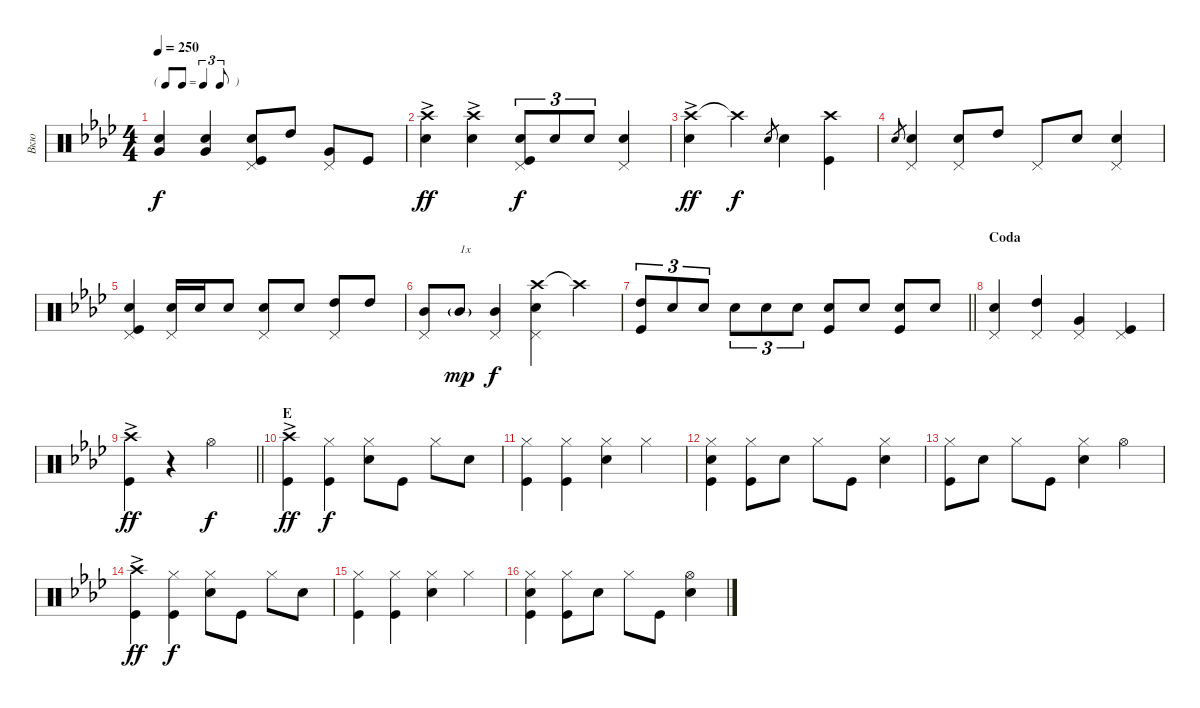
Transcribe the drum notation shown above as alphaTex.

\track ("Вкю" "Вкю") {instrument percussion}
\staff {score}
\articulation defaults
\ts (4 4)
\tf triplet8th
\tempo 250
\clef neutral
\ks ab
("Very Low Tom (hit)" "Snare (hit) 2").4{dy f} ("Very Low Tom (hit)" "Snare (hit) 2").4 ("Snare (hit) 2" "Kick (hit)" "Pedal Hi-Hat (hit)").8 "High Tom (hit)".8 ("Very Low Tom (hit)" "Pedal Hi-Hat (hit)").8 "Kick (hit)".8 |
("Crash high (hit)"{ac} "Snare (hit) 2"{ac}).4{dy ff} ("Crash high (hit)"{ac} "Snare (hit) 2"{ac}).4 ("Snare (hit) 2" "Kick (hit)" "Pedal Hi-Hat (hit)").8{tu (3 2) dy f} "Snare (hit) 2".8{tu (3 2)} "Snare (hit) 2".8{tu (3 2)} ("Snare (hit) 2" "Pedal Hi-Hat (hit)").4 |
("Crash high (hit)"{ac} "Snare (hit) 2"{ac}).4{dy ff} "Crash high (hit)"{t}.4{dy f} "Snare (hit) 2".8{gr} "Snare (hit) 2".4 ("Crash high (hit)" "Kick (hit)").4 |
"Snare (hit) 2".8{gr} ("Snare (hit) 2" "Pedal Hi-Hat (hit)").4 ("Snare (hit) 2" "Pedal Hi-Hat (hit)").8 "High Tom (hit)".8 "Pedal Hi-Hat (hit)".8 "Snare (hit) 2".8 ("Snare (hit) 2" "Pedal Hi-Hat (hit)").4 |
("Snare (hit) 2" "Kick (hit)" "Pedal Hi-Hat (hit)").4 ("Snare (hit) 2" "Pedal Hi-Hat (hit)").16 "Snare (hit) 2".16 "Snare (hit) 2".8 ("Snare (hit) 2" "Pedal Hi-Hat (hit)").8 "Snare (hit) 2".8 ("High Tom (hit)" "Pedal Hi-Hat (hit)").8 "High Tom (hit)".8 |
("Mid Tom (hit)" "Pedal Hi-Hat (hit)").8 "Mid Tom (hit)"{g}.8{txt "1x" dy mp} ("Mid Tom (hit)" "Pedal Hi-Hat (hit)").4{dy f} ("Crash high (hit)" "Snare (hit) 2" "Pedal Hi-Hat (hit)").4 "Crash high (hit)"{t}.4 |
\barLineRight lightlight
("High Tom (hit)" "Kick (hit)").8{tu (3 2)} "Snare (hit) 2".8{tu (3 2)} "Snare (hit) 2".8{tu (3 2)} "Snare (hit) 2".8{tu (3 2)} "Snare (hit) 2".8{tu (3 2)} "Snare (hit) 2".8{tu (3 2)} ("Snare (hit) 2" "Kick (hit)").8 "Snare (hit) 2".8 ("Snare (hit) 2" "Kick (hit)").8 "Snare (hit) 2".8 |
\section ("" "Coda")
("Snare (hit) 2" "Pedal Hi-Hat (hit)").4 ("High Tom (hit)" "Pedal Hi-Hat (hit)").4 ("Very Low Tom (hit)" "Pedal Hi-Hat (hit)").4 ("Kick (hit)" "Pedal Hi-Hat (hit)").4 |
\barLineRight lightlight
("Crash high (hit)"{ac} "Kick (hit)").4{dy ff} r.4 "Hi-Hat (open)".2{dy f} |
\section ("" "E")
("Crash high (hit)"{ac} "Kick (hit)"{ac}).4{dy ff} ("Hi-Hat (closed)" "Kick (hit)").4{dy f} ("Hi-Hat (closed)" "Snare (hit) 2").8 "Kick (hit)".8 "Hi-Hat (closed)".8 "Snare (hit) 2".8 |
("Hi-Hat (closed)" "Kick (hit)").4 ("Hi-Hat (closed)" "Kick (hit)").4 ("Hi-Hat (closed)" "Snare (hit) 2").4 "Hi-Hat (closed)".4 |
("Hi-Hat (closed)" "Snare (hit) 2" "Kick (hit)").4 ("Hi-Hat (closed)" "Kick (hit)").8 "Snare (hit) 2".8 "Hi-Hat (closed)".8 "Kick (hit)".8 ("Hi-Hat (closed)" "Snare (hit) 2").4 |
("Hi-Hat (closed)" "Kick (hit)").8 "Snare (hit) 2".8 "Hi-Hat (closed)".8 "Kick (hit)".8 ("Hi-Hat (closed)" "Snare (hit) 2").4 "Hi-Hat (open)".4 |
("Crash high (hit)"{ac} "Kick (hit)"{ac}).4{dy ff} ("Hi-Hat (closed)" "Kick (hit)").4{dy f} ("Hi-Hat (closed)" "Snare (hit) 2").8 "Kick (hit)".8 "Hi-Hat (closed)".8 "Snare (hit) 2".8 |
("Hi-Hat (closed)" "Kick (hit)").4 ("Hi-Hat (closed)" "Kick (hit)").4 ("Hi-Hat (closed)" "Snare (hit) 2").4 "Hi-Hat (closed)".4 |
("Hi-Hat (closed)" "Snare (hit) 2" "Kick (hit)").4 ("Hi-Hat (closed)" "Kick (hit)").8 "Snare (hit) 2".8 "Hi-Hat (closed)".8 "Kick (hit)".8 ("Hi-Hat (open)" "Snare (hit) 2").4
